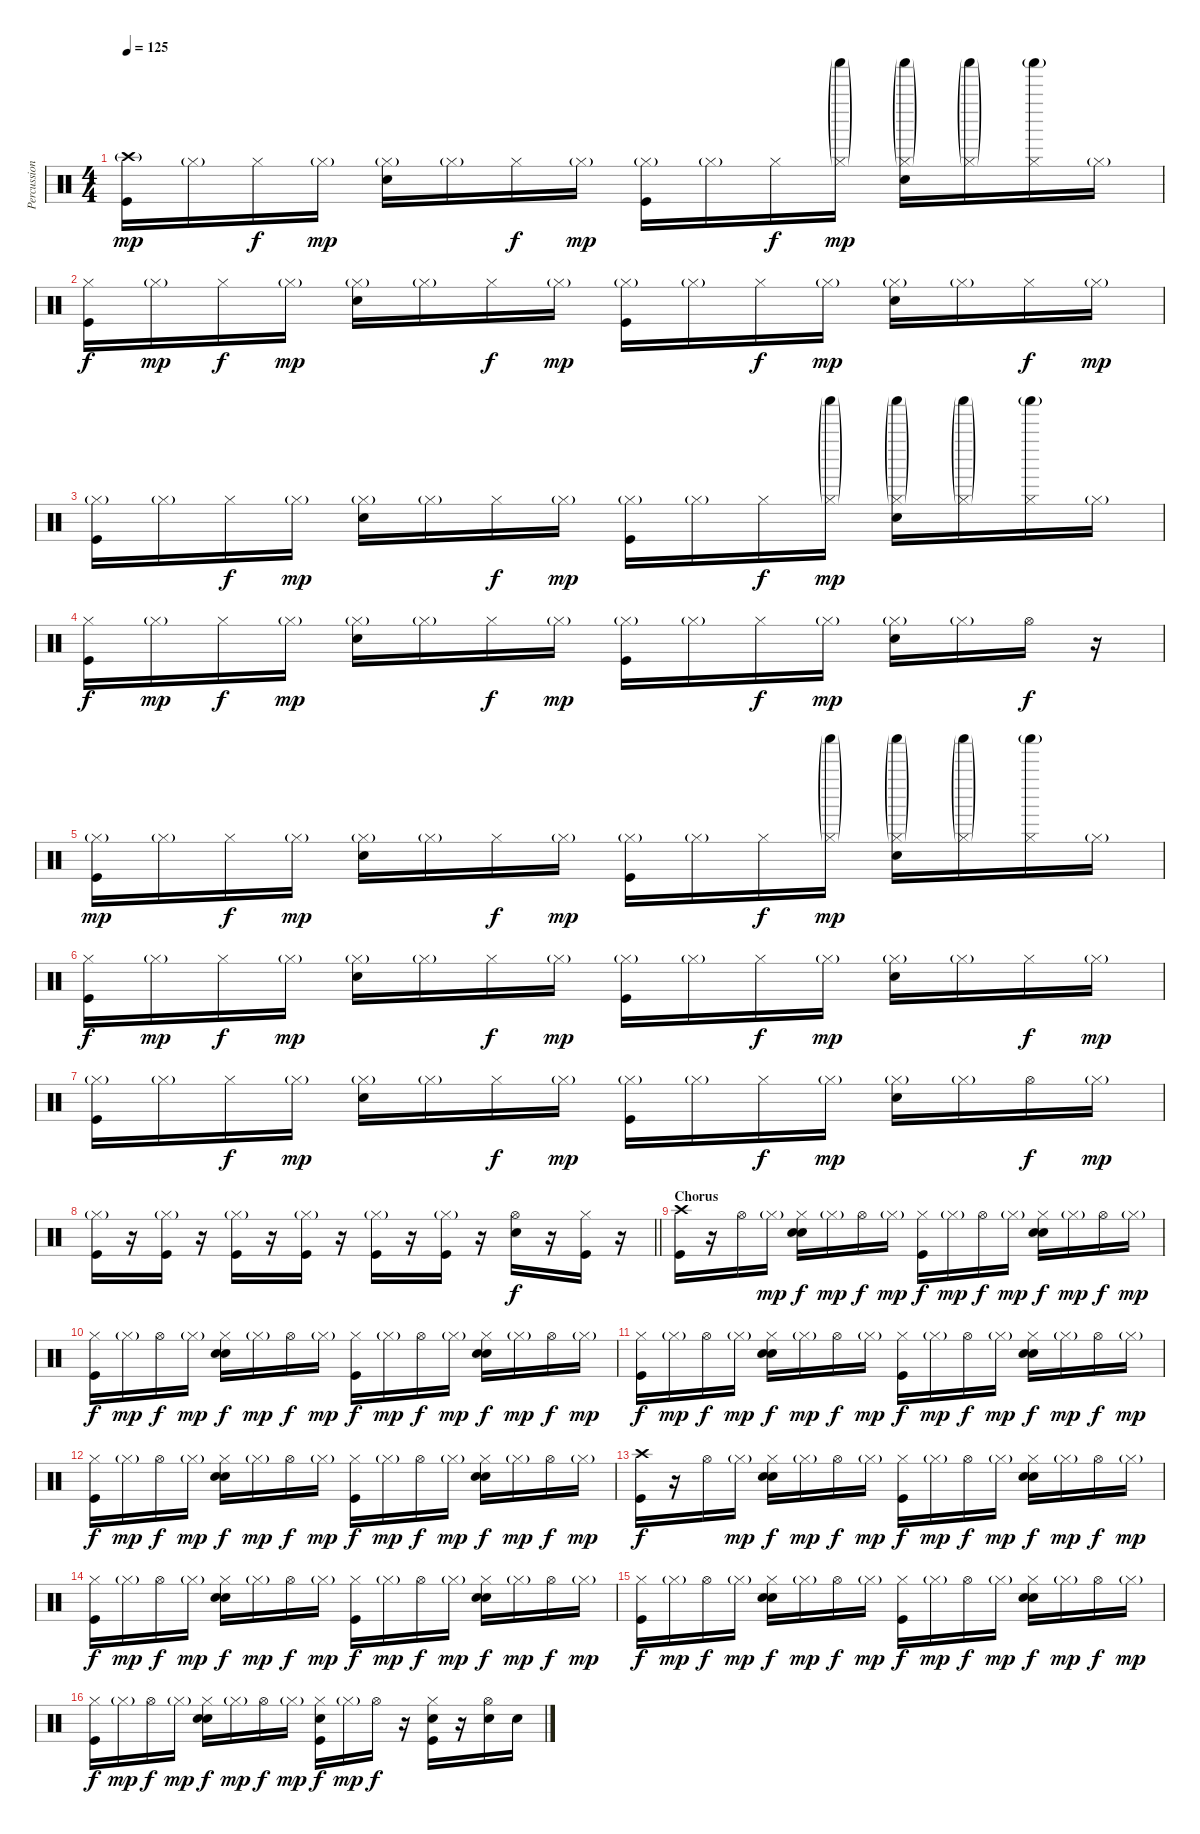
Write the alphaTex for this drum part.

\track ("Percussion" "Percussion") {instrument percussion}
\staff {score}
\articulation defaults
\ts (4 4)
\tempo 125
\clef neutral
\ks c
("Crash high (hit)"{g} "Kick (hit)").16{dy mp} "Hi-Hat (closed)"{g}.16 "Hi-Hat (closed)".16{dy f} "Hi-Hat (closed)"{g}.16{dy mp} ("Hi-Hat (closed)"{g} "Snare (hit) 2").16 "Hi-Hat (closed)"{g}.16 "Hi-Hat (closed)".16{dy f} "Hi-Hat (closed)"{g}.16{dy mp} ("Hi-Hat (closed)"{g} "Kick (hit)").16 "Hi-Hat (closed)"{g}.16 "Hi-Hat (closed)".16{dy f} ("Shaker (hit)"{g} "Hi-Hat (closed)"{g}).16{dy mp} ("Shaker (hit)"{g} "Hi-Hat (closed)"{g} "Snare (hit) 2").16 ("Shaker (hit)"{g} "Hi-Hat (closed)"{g}).16 ("Shaker (hit)"{g} "Hi-Hat (closed)").16 "Hi-Hat (closed)"{g}.16 |
("Hi-Hat (closed)" "Kick (hit)").16{dy f} "Hi-Hat (closed)"{g}.16{dy mp} "Hi-Hat (closed)".16{dy f} "Hi-Hat (closed)"{g}.16{dy mp} ("Hi-Hat (closed)"{g} "Snare (hit) 2").16 "Hi-Hat (closed)"{g}.16 "Hi-Hat (closed)".16{dy f} "Hi-Hat (closed)"{g}.16{dy mp} ("Hi-Hat (closed)"{g} "Kick (hit)").16 "Hi-Hat (closed)"{g}.16 "Hi-Hat (closed)".16{dy f} "Hi-Hat (closed)"{g}.16{dy mp} ("Hi-Hat (closed)"{g} "Snare (hit) 2").16 "Hi-Hat (closed)"{g}.16 "Hi-Hat (closed)".16{dy f} "Hi-Hat (closed)"{g}.16{dy mp} |
("Hi-Hat (closed)"{g} "Kick (hit)").16 "Hi-Hat (closed)"{g}.16 "Hi-Hat (closed)".16{dy f} "Hi-Hat (closed)"{g}.16{dy mp} ("Hi-Hat (closed)"{g} "Snare (hit) 2").16 "Hi-Hat (closed)"{g}.16 "Hi-Hat (closed)".16{dy f} "Hi-Hat (closed)"{g}.16{dy mp} ("Hi-Hat (closed)"{g} "Kick (hit)").16 "Hi-Hat (closed)"{g}.16 "Hi-Hat (closed)".16{dy f} ("Shaker (hit)"{g} "Hi-Hat (closed)"{g}).16{dy mp} ("Shaker (hit)"{g} "Hi-Hat (closed)"{g} "Snare (hit) 2").16 ("Shaker (hit)"{g} "Hi-Hat (closed)"{g}).16 ("Shaker (hit)"{g} "Hi-Hat (closed)").16 "Hi-Hat (closed)"{g}.16 |
("Hi-Hat (closed)" "Kick (hit)").16{dy f} "Hi-Hat (closed)"{g}.16{dy mp} "Hi-Hat (closed)".16{dy f} "Hi-Hat (closed)"{g}.16{dy mp} ("Hi-Hat (closed)"{g} "Snare (hit) 2").16 "Hi-Hat (closed)"{g}.16 "Hi-Hat (closed)".16{dy f} "Hi-Hat (closed)"{g}.16{dy mp} ("Hi-Hat (closed)"{g} "Kick (hit)").16 "Hi-Hat (closed)"{g}.16 "Hi-Hat (closed)".16{dy f} "Hi-Hat (closed)"{g}.16{dy mp} ("Hi-Hat (closed)"{g} "Snare (hit) 2").16 "Hi-Hat (closed)"{g}.16 "Hi-Hat (open)".16{dy f} r.16 |
("Hi-Hat (closed)"{g} "Kick (hit)").16{dy mp} "Hi-Hat (closed)"{g}.16 "Hi-Hat (closed)".16{dy f} "Hi-Hat (closed)"{g}.16{dy mp} ("Hi-Hat (closed)"{g} "Snare (hit) 2").16 "Hi-Hat (closed)"{g}.16 "Hi-Hat (closed)".16{dy f} "Hi-Hat (closed)"{g}.16{dy mp} ("Hi-Hat (closed)"{g} "Kick (hit)").16 "Hi-Hat (closed)"{g}.16 "Hi-Hat (closed)".16{dy f} ("Shaker (hit)"{g} "Hi-Hat (closed)"{g}).16{dy mp} ("Shaker (hit)"{g} "Hi-Hat (closed)"{g} "Snare (hit) 2").16 ("Shaker (hit)"{g} "Hi-Hat (closed)"{g}).16 ("Shaker (hit)"{g} "Hi-Hat (closed)").16 "Hi-Hat (closed)"{g}.16 |
("Hi-Hat (closed)" "Kick (hit)").16{dy f} "Hi-Hat (closed)"{g}.16{dy mp} "Hi-Hat (closed)".16{dy f} "Hi-Hat (closed)"{g}.16{dy mp} ("Hi-Hat (closed)"{g} "Snare (hit) 2").16 "Hi-Hat (closed)"{g}.16 "Hi-Hat (closed)".16{dy f} "Hi-Hat (closed)"{g}.16{dy mp} ("Hi-Hat (closed)"{g} "Kick (hit)").16 "Hi-Hat (closed)"{g}.16 "Hi-Hat (closed)".16{dy f} "Hi-Hat (closed)"{g}.16{dy mp} ("Hi-Hat (closed)"{g} "Snare (hit) 2").16 "Hi-Hat (closed)"{g}.16 "Hi-Hat (closed)".16{dy f} "Hi-Hat (closed)"{g}.16{dy mp} |
("Hi-Hat (closed)"{g} "Kick (hit)").16 "Hi-Hat (closed)"{g}.16 "Hi-Hat (closed)".16{dy f} "Hi-Hat (closed)"{g}.16{dy mp} ("Hi-Hat (closed)"{g} "Snare (hit) 2").16 "Hi-Hat (closed)"{g}.16 "Hi-Hat (closed)".16{dy f} "Hi-Hat (closed)"{g}.16{dy mp} ("Hi-Hat (closed)"{g} "Kick (hit)").16 "Hi-Hat (closed)"{g}.16 "Hi-Hat (closed)".16{dy f} "Hi-Hat (closed)"{g}.16{dy mp} ("Hi-Hat (closed)"{g} "Snare (hit) 2").16 "Hi-Hat (closed)"{g}.16 "Hi-Hat (open)".16{dy f} "Hi-Hat (closed)"{g}.16{dy mp} |
\barLineRight lightlight
("Hi-Hat (closed)"{g} "Kick (hit)").16 r.16 ("Hi-Hat (closed)"{g} "Kick (hit)").16 r.16 ("Hi-Hat (closed)"{g} "Kick (hit)").16 r.16 ("Hi-Hat (closed)"{g} "Kick (hit)").16 r.16 ("Hi-Hat (closed)"{g} "Kick (hit)").16 r.16 ("Hi-Hat (closed)"{g} "Kick (hit)").16 r.16 ("Hi-Hat (open)" "Snare (hit) 2").16{dy f} r.16 ("Hi-Hat (closed)" "Kick (hit)").16 r.16 |
\section ("" "Chorus")
("Crash high (hit)" "Kick (hit)").16 r.16 "Hi-Hat (open)".16 "Hi-Hat (closed)"{g}.16{dy mp} ("Hi-Hat (closed)" "Hand Clap (hit)" "Snare (hit) 2").16{dy f} "Hi-Hat (closed)"{g}.16{dy mp} "Hi-Hat (open)".16{dy f} "Hi-Hat (closed)"{g}.16{dy mp} ("Hi-Hat (closed)" "Kick (hit)").16{dy f} "Hi-Hat (closed)"{g}.16{dy mp} "Hi-Hat (open)".16{dy f} "Hi-Hat (closed)"{g}.16{dy mp} ("Hi-Hat (closed)" "Hand Clap (hit)" "Snare (hit) 2").16{dy f} "Hi-Hat (closed)"{g}.16{dy mp} "Hi-Hat (open)".16{dy f} "Hi-Hat (closed)"{g}.16{dy mp} |
("Hi-Hat (closed)" "Kick (hit)").16{dy f} "Hi-Hat (closed)"{g}.16{dy mp} "Hi-Hat (open)".16{dy f} "Hi-Hat (closed)"{g}.16{dy mp} ("Hi-Hat (closed)" "Hand Clap (hit)" "Snare (hit) 2").16{dy f} "Hi-Hat (closed)"{g}.16{dy mp} "Hi-Hat (open)".16{dy f} "Hi-Hat (closed)"{g}.16{dy mp} ("Hi-Hat (closed)" "Kick (hit)").16{dy f} "Hi-Hat (closed)"{g}.16{dy mp} "Hi-Hat (open)".16{dy f} "Hi-Hat (closed)"{g}.16{dy mp} ("Hi-Hat (closed)" "Hand Clap (hit)" "Snare (hit) 2").16{dy f} "Hi-Hat (closed)"{g}.16{dy mp} "Hi-Hat (open)".16{dy f} "Hi-Hat (closed)"{g}.16{dy mp} |
("Hi-Hat (closed)" "Kick (hit)").16{dy f} "Hi-Hat (closed)"{g}.16{dy mp} "Hi-Hat (open)".16{dy f} "Hi-Hat (closed)"{g}.16{dy mp} ("Hi-Hat (closed)" "Hand Clap (hit)" "Snare (hit) 2").16{dy f} "Hi-Hat (closed)"{g}.16{dy mp} "Hi-Hat (open)".16{dy f} "Hi-Hat (closed)"{g}.16{dy mp} ("Hi-Hat (closed)" "Kick (hit)").16{dy f} "Hi-Hat (closed)"{g}.16{dy mp} "Hi-Hat (open)".16{dy f} "Hi-Hat (closed)"{g}.16{dy mp} ("Hi-Hat (closed)" "Hand Clap (hit)" "Snare (hit) 2").16{dy f} "Hi-Hat (closed)"{g}.16{dy mp} "Hi-Hat (open)".16{dy f} "Hi-Hat (closed)"{g}.16{dy mp} |
("Hi-Hat (closed)" "Kick (hit)").16{dy f} "Hi-Hat (closed)"{g}.16{dy mp} "Hi-Hat (open)".16{dy f} "Hi-Hat (closed)"{g}.16{dy mp} ("Hi-Hat (closed)" "Hand Clap (hit)" "Snare (hit) 2").16{dy f} "Hi-Hat (closed)"{g}.16{dy mp} "Hi-Hat (open)".16{dy f} "Hi-Hat (closed)"{g}.16{dy mp} ("Hi-Hat (closed)" "Kick (hit)").16{dy f} "Hi-Hat (closed)"{g}.16{dy mp} "Hi-Hat (open)".16{dy f} "Hi-Hat (closed)"{g}.16{dy mp} ("Hi-Hat (closed)" "Hand Clap (hit)" "Snare (hit) 2").16{dy f} "Hi-Hat (closed)"{g}.16{dy mp} "Hi-Hat (open)".16{dy f} "Hi-Hat (closed)"{g}.16{dy mp} |
("Crash high (hit)" "Kick (hit)").16{dy f} r.16 "Hi-Hat (open)".16 "Hi-Hat (closed)"{g}.16{dy mp} ("Hi-Hat (closed)" "Hand Clap (hit)" "Snare (hit) 2").16{dy f} "Hi-Hat (closed)"{g}.16{dy mp} "Hi-Hat (open)".16{dy f} "Hi-Hat (closed)"{g}.16{dy mp} ("Hi-Hat (closed)" "Kick (hit)").16{dy f} "Hi-Hat (closed)"{g}.16{dy mp} "Hi-Hat (open)".16{dy f} "Hi-Hat (closed)"{g}.16{dy mp} ("Hi-Hat (closed)" "Hand Clap (hit)" "Snare (hit) 2").16{dy f} "Hi-Hat (closed)"{g}.16{dy mp} "Hi-Hat (open)".16{dy f} "Hi-Hat (closed)"{g}.16{dy mp} |
("Hi-Hat (closed)" "Kick (hit)").16{dy f} "Hi-Hat (closed)"{g}.16{dy mp} "Hi-Hat (open)".16{dy f} "Hi-Hat (closed)"{g}.16{dy mp} ("Hi-Hat (closed)" "Hand Clap (hit)" "Snare (hit) 2").16{dy f} "Hi-Hat (closed)"{g}.16{dy mp} "Hi-Hat (open)".16{dy f} "Hi-Hat (closed)"{g}.16{dy mp} ("Hi-Hat (closed)" "Kick (hit)").16{dy f} "Hi-Hat (closed)"{g}.16{dy mp} "Hi-Hat (open)".16{dy f} "Hi-Hat (closed)"{g}.16{dy mp} ("Hi-Hat (closed)" "Hand Clap (hit)" "Snare (hit) 2").16{dy f} "Hi-Hat (closed)"{g}.16{dy mp} "Hi-Hat (open)".16{dy f} "Hi-Hat (closed)"{g}.16{dy mp} |
("Hi-Hat (closed)" "Kick (hit)").16{dy f} "Hi-Hat (closed)"{g}.16{dy mp} "Hi-Hat (open)".16{dy f} "Hi-Hat (closed)"{g}.16{dy mp} ("Hi-Hat (closed)" "Hand Clap (hit)" "Snare (hit) 2").16{dy f} "Hi-Hat (closed)"{g}.16{dy mp} "Hi-Hat (open)".16{dy f} "Hi-Hat (closed)"{g}.16{dy mp} ("Hi-Hat (closed)" "Kick (hit)").16{dy f} "Hi-Hat (closed)"{g}.16{dy mp} "Hi-Hat (open)".16{dy f} "Hi-Hat (closed)"{g}.16{dy mp} ("Hi-Hat (closed)" "Hand Clap (hit)" "Snare (hit) 2").16{dy f} "Hi-Hat (closed)"{g}.16{dy mp} "Hi-Hat (open)".16{dy f} "Hi-Hat (closed)"{g}.16{dy mp} |
("Hi-Hat (closed)" "Kick (hit)").16{dy f} "Hi-Hat (closed)"{g}.16{dy mp} "Hi-Hat (open)".16{dy f} "Hi-Hat (closed)"{g}.16{dy mp} ("Hi-Hat (closed)" "Hand Clap (hit)" "Snare (hit) 2").16{dy f} "Hi-Hat (closed)"{g}.16{dy mp} "Hi-Hat (open)".16{dy f} "Hi-Hat (closed)"{g}.16{dy mp} ("Hi-Hat (closed)" "Snare (hit) 2" "Kick (hit)").16{dy f} "Hi-Hat (closed)"{g}.16{dy mp} "Hi-Hat (open)".16{dy f} r.16 ("Hi-Hat (closed)" "Snare (hit) 2" "Kick (hit)").16 r.16 ("Hi-Hat (open)" "Snare (hit) 2").16 "Snare (hit) 2".16
